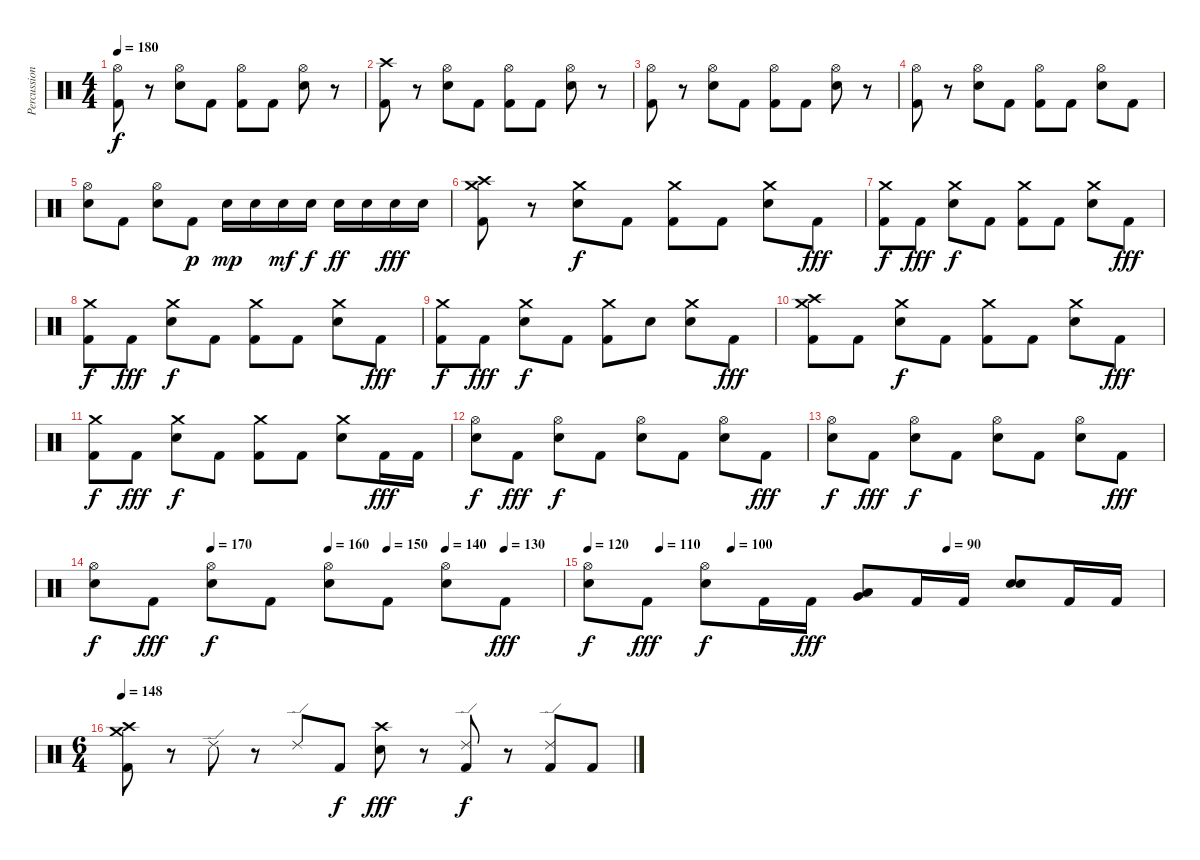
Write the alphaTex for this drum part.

\track ("Percussion" "Percussion") {instrument percussion}
\staff {score}
\articulation defaults
\ts (4 4)
\tempo 180
\clef neutral
\ks c
("Hi-Hat (open)" "Kick (hit) 2").8{dy f} r.8 ("Hi-Hat (open)" "Electric Snare (hit)").8 "Kick (hit) 2".8 ("Hi-Hat (open)" "Kick (hit) 2").8 "Kick (hit) 2".8 ("Hi-Hat (open)" "Electric Snare (hit)").8 r.8 |
("Crash high (hit)" "Kick (hit) 2").8 r.8 ("Hi-Hat (open)" "Electric Snare (hit)").8 "Kick (hit) 2".8 ("Hi-Hat (open)" "Kick (hit) 2").8 "Kick (hit) 2".8 ("Hi-Hat (open)" "Electric Snare (hit)").8 r.8 |
("Hi-Hat (open)" "Kick (hit) 2").8 r.8 ("Hi-Hat (open)" "Electric Snare (hit)").8 "Kick (hit) 2".8 ("Hi-Hat (open)" "Kick (hit) 2").8 "Kick (hit) 2".8 ("Hi-Hat (open)" "Electric Snare (hit)").8 r.8 |
("Hi-Hat (open)" "Kick (hit) 2").8 r.8 ("Hi-Hat (open)" "Electric Snare (hit)").8 "Kick (hit) 2".8 ("Hi-Hat (open)" "Kick (hit) 2").8 "Kick (hit) 2".8 ("Hi-Hat (open)" "Electric Snare (hit)").8 "Kick (hit) 2".8 |
("Hi-Hat (open)" "Electric Snare (hit)").8 "Kick (hit) 2".8 ("Hi-Hat (open)" "Electric Snare (hit)").8 "Kick (hit) 2".8{dy p} "Electric Snare (hit)".16{dy mp} "Electric Snare (hit)".16 "Electric Snare (hit)".16{dy mf} "Electric Snare (hit)".16{dy f} "Electric Snare (hit)".16{dy ff} "Electric Snare (hit)".16 "Electric Snare (hit)".16{dy fff} "Electric Snare (hit)".16 |
("Crash high (hit)" "Crash medium (hit)" "Kick (hit) 2").8 r.8 ("Crash medium (hit)" "Electric Snare (hit)").8{dy f} "Kick (hit) 2".8 ("Crash medium (hit)" "Kick (hit) 2").8 "Kick (hit) 2".8 ("Crash medium (hit)" "Electric Snare (hit)").8 "Kick (hit) 2".8{dy fff} |
("Crash medium (hit)" "Kick (hit) 2").8{dy f} "Kick (hit) 2".8{dy fff} ("Crash medium (hit)" "Electric Snare (hit)").8{dy f} "Kick (hit) 2".8 ("Crash medium (hit)" "Kick (hit) 2").8 "Kick (hit) 2".8 ("Crash medium (hit)" "Electric Snare (hit)").8 "Kick (hit) 2".8{dy fff} |
("Crash medium (hit)" "Kick (hit) 2").8{dy f} "Kick (hit) 2".8{dy fff} ("Crash medium (hit)" "Electric Snare (hit)").8{dy f} "Kick (hit) 2".8 ("Crash medium (hit)" "Kick (hit) 2").8 "Kick (hit) 2".8 ("Crash medium (hit)" "Electric Snare (hit)").8 "Kick (hit) 2".8{dy fff} |
("Crash medium (hit)" "Kick (hit) 2").8{dy f} "Kick (hit) 2".8{dy fff} ("Crash medium (hit)" "Electric Snare (hit)").8{dy f} "Kick (hit) 2".8 ("Crash medium (hit)" "Kick (hit) 2").8 "Electric Snare (hit)".8 ("Crash medium (hit)" "Electric Snare (hit)").8 "Kick (hit) 2".8{dy fff} |
("Crash medium (hit)" "Crash high (hit)" "Kick (hit) 2").8 "Kick (hit) 2".8 ("Crash medium (hit)" "Electric Snare (hit)").8{dy f} "Kick (hit) 2".8 ("Crash medium (hit)" "Kick (hit) 2").8 "Kick (hit) 2".8 ("Crash medium (hit)" "Electric Snare (hit)").8 "Kick (hit) 2".8{dy fff} |
("Crash medium (hit)" "Kick (hit) 2").8{dy f} "Kick (hit) 2".8{dy fff} ("Crash medium (hit)" "Electric Snare (hit)").8{dy f} "Kick (hit) 2".8 ("Crash medium (hit)" "Kick (hit) 2").8 "Kick (hit) 2".8 ("Crash medium (hit)" "Electric Snare (hit)").8 "Kick (hit) 2".16{dy fff} "Kick (hit) 2".16 |
("Hi-Hat (open)" "Electric Snare (hit)").8{dy f} "Kick (hit) 2".8{dy fff} ("Hi-Hat (open)" "Electric Snare (hit)").8{dy f} "Kick (hit) 2".8 ("Hi-Hat (open)" "Electric Snare (hit)").8 "Kick (hit) 2".8 ("Hi-Hat (open)" "Electric Snare (hit)").8 "Kick (hit) 2".8{dy fff} |
("Hi-Hat (open)" "Electric Snare (hit)").8{dy f} "Kick (hit) 2".8{dy fff} ("Hi-Hat (open)" "Electric Snare (hit)").8{dy f} "Kick (hit) 2".8 ("Hi-Hat (open)" "Electric Snare (hit)").8 "Kick (hit) 2".8 ("Hi-Hat (open)" "Electric Snare (hit)").8 "Kick (hit) 2".8{dy fff} |
\tempo (170 0.25)
\tempo (160 0.5)
\tempo (150 0.625)
\tempo (140 0.75)
\tempo (130 0.875)
("Hi-Hat (open)" "Electric Snare (hit)").8{dy f} "Kick (hit) 2".8{dy fff} ("Hi-Hat (open)" "Electric Snare (hit)").8{dy f} "Kick (hit) 2".8 ("Hi-Hat (open)" "Electric Snare (hit)").8 "Kick (hit) 2".8 ("Hi-Hat (open)" "Electric Snare (hit)").8 "Kick (hit) 2".8{dy fff} |
\tempo 120
\tempo (110 0.125)
\tempo (100 0.25)
\tempo (90 0.625)
("Hi-Hat (open)" "Electric Snare (hit)").8{dy f} "Kick (hit) 2".8{dy fff} ("Hi-Hat (open)" "Electric Snare (hit)").8{dy f} "Kick (hit) 2".16 "Kick (hit) 2".16{dy fff} ("Low Tom (hit)" "Very Low Tom (hit)").8 "Kick (hit) 2".16 "Kick (hit) 2".16 ("Electric Snare (hit)" "Electric Snare (hit)").8 "Kick (hit) 2".16 "Kick (hit) 2".16 |
\ts (6 4)
\tempo 148
("Crash high (hit)" "Crash medium (hit)" "Kick (hit) 2").8 r.8 "Ride (edge) 2".8 r.8 "Ride (edge) 2".8 "Kick (hit) 2".8{dy f} ("Crash high (hit)" "Electric Snare (hit)").8{dy fff} r.8 ("Ride (edge) 2" "Kick (hit) 2").8{dy f} r.8 ("Ride (edge) 2" "Kick (hit) 2").8 "Kick (hit) 2".8
